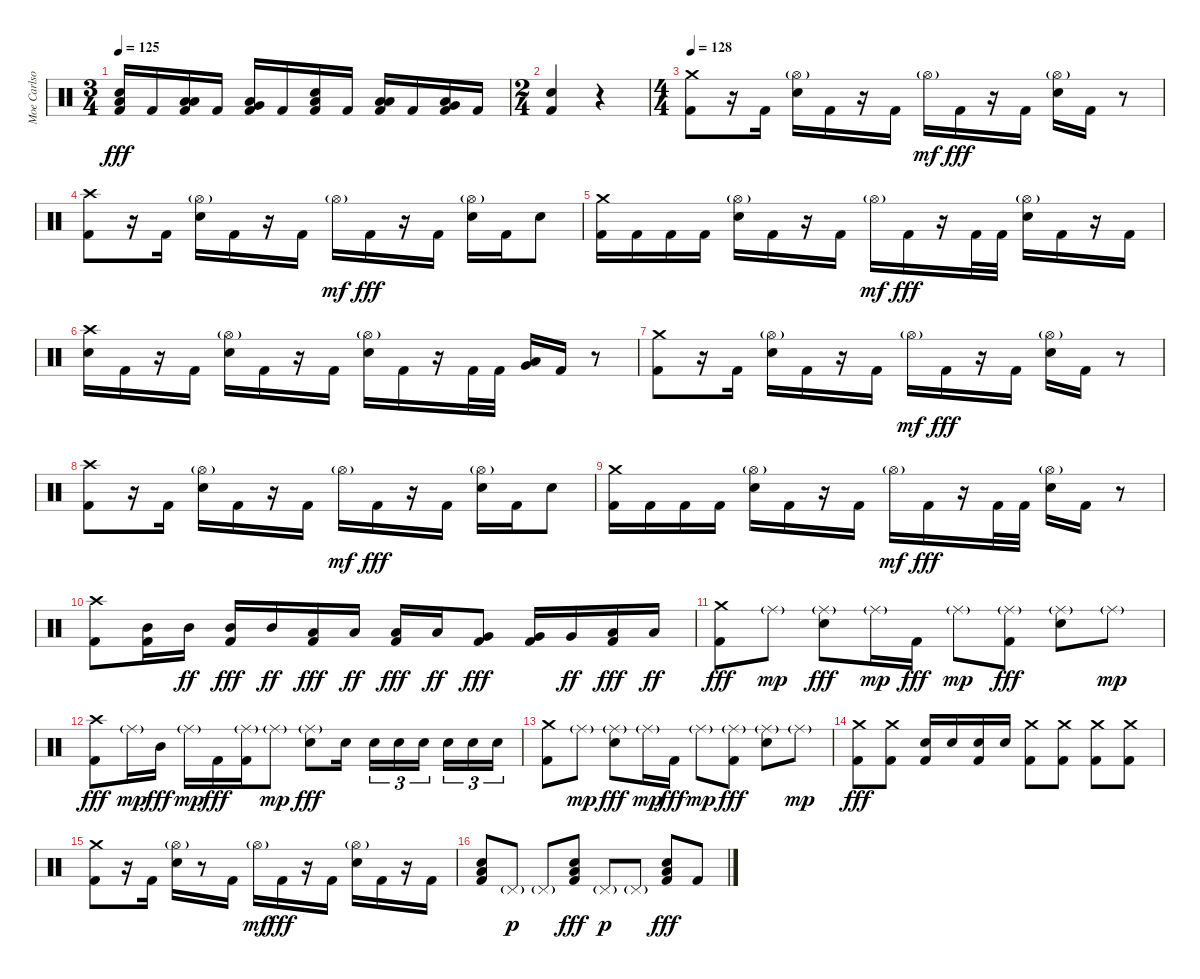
\track ("Moe Carlson" "Moe Carlso") {instrument percussion}
\staff {score}
\articulation defaults
\ts (3 4)
\tempo 125
\clef neutral
\ks c
("Electric Snare (hit)" "Low Floor Tom (hit)" "Kick (hit) 2").16{dy fff} "Kick (hit) 2".16 ("Low Tom (hit)" "Low Floor Tom (hit)" "Kick (hit) 2").16 "Kick (hit) 2".16 ("Very Low Tom (hit)" "Low Floor Tom (hit)" "Kick (hit) 2").16 "Kick (hit) 2".16 ("Electric Snare (hit)" "Low Floor Tom (hit)" "Kick (hit) 2").16 "Kick (hit) 2".16 ("Low Tom (hit)" "Low Floor Tom (hit)" "Kick (hit) 2").16 "Kick (hit) 2".16 ("Very Low Tom (hit)" "Low Floor Tom (hit)" "Kick (hit) 2").16 "Kick (hit) 2".16 |
\ts (2 4)
("Electric Snare (hit)" "Kick (hit) 2").4 r.4 |
\ts (4 4)
\tempo 128
("Crash medium (hit)" "Kick (hit) 2").8 r.16 "Kick (hit) 2".16 ("Hi-Hat (open)"{g} "Electric Snare (hit)").16 "Kick (hit) 2".16 r.16 "Kick (hit) 2".16 "Hi-Hat (open)"{g}.16{dy mf} "Kick (hit) 2".16{dy fff} r.16 "Kick (hit) 2".16 ("Hi-Hat (open)"{g} "Electric Snare (hit)").16 "Kick (hit) 2".16 r.8 |
("Crash high (hit)" "Kick (hit) 2").8 r.16 "Kick (hit) 2".16 ("Hi-Hat (open)"{g} "Electric Snare (hit)").16 "Kick (hit) 2".16 r.16 "Kick (hit) 2".16 "Hi-Hat (open)"{g}.16{dy mf} "Kick (hit) 2".16{dy fff} r.16 "Kick (hit) 2".16 ("Hi-Hat (open)"{g} "Electric Snare (hit)").16 "Kick (hit) 2".16 "Electric Snare (hit)".8 |
("Crash medium (hit)" "Kick (hit) 2").16 "Kick (hit) 2".16 "Kick (hit) 2".16 "Kick (hit) 2".16 ("Hi-Hat (open)"{g} "Electric Snare (hit)").16 "Kick (hit) 2".16 r.16 "Kick (hit) 2".16 "Hi-Hat (open)"{g}.16{dy mf} "Kick (hit) 2".16{dy fff} r.16 "Kick (hit) 2".32 "Kick (hit) 2".32 ("Hi-Hat (open)"{g} "Electric Snare (hit)").16 "Kick (hit) 2".16 r.16 "Kick (hit) 2".16 |
("Crash high (hit)" "Electric Snare (hit)").16 "Kick (hit) 2".16 r.16 "Kick (hit) 2".16 ("Hi-Hat (open)"{g} "Electric Snare (hit)").16 "Kick (hit) 2".16 r.16 "Kick (hit) 2".16 ("Hi-Hat (open)"{g} "Electric Snare (hit)").16 "Kick (hit) 2".16 r.16 "Kick (hit) 2".32 "Kick (hit) 2".32 ("Very Low Tom (hit)" "Low Floor Tom (hit)").16 "Kick (hit) 2".16 r.8 |
("Crash medium (hit)" "Kick (hit) 2").8 r.16 "Kick (hit) 2".16 ("Hi-Hat (open)"{g} "Electric Snare (hit)").16 "Kick (hit) 2".16 r.16 "Kick (hit) 2".16 "Hi-Hat (open)"{g}.16{dy mf} "Kick (hit) 2".16{dy fff} r.16 "Kick (hit) 2".16 ("Hi-Hat (open)"{g} "Electric Snare (hit)").16 "Kick (hit) 2".16 r.8 |
("Crash high (hit)" "Kick (hit) 2").8 r.16 "Kick (hit) 2".16 ("Hi-Hat (open)"{g} "Electric Snare (hit)").16 "Kick (hit) 2".16 r.16 "Kick (hit) 2".16 "Hi-Hat (open)"{g}.16{dy mf} "Kick (hit) 2".16{dy fff} r.16 "Kick (hit) 2".16 ("Hi-Hat (open)"{g} "Electric Snare (hit)").16 "Kick (hit) 2".16 "Electric Snare (hit)".8 |
("Crash medium (hit)" "Kick (hit) 2").16 "Kick (hit) 2".16 "Kick (hit) 2".16 "Kick (hit) 2".16 ("Hi-Hat (open)"{g} "Electric Snare (hit)").16 "Kick (hit) 2".16 r.16 "Kick (hit) 2".16 "Hi-Hat (open)"{g}.16{dy mf} "Kick (hit) 2".16{dy fff} r.16 "Kick (hit) 2".32 "Kick (hit) 2".32 ("Hi-Hat (open)"{g} "Electric Snare (hit)").16 "Kick (hit) 2".16 r.8 |
("Crash high (hit)" "Kick (hit) 2").8 ("Mid Tom (hit)" "Kick (hit) 2").16 "Mid Tom (hit)".16{dy ff} ("Mid Tom (hit)" "Kick (hit) 2").16{dy fff} "Mid Tom (hit)".16{dy ff} ("Low Tom (hit)" "Kick (hit) 2").16{dy fff} "Low Tom (hit)".16{dy ff} ("Low Tom (hit)" "Kick (hit) 2").16{dy fff} "Low Tom (hit)".16{dy ff} ("Very Low Tom (hit)" "Kick (hit) 2").8{dy fff} ("Very Low Tom (hit)" "Kick (hit) 2").16 "Very Low Tom (hit)".16{dy ff} ("Low Floor Tom (hit)" "Kick (hit) 2").16{dy fff} "Low Floor Tom (hit)".16{dy ff} |
("Crash medium (hit)" "Kick (hit) 2").8{dy fff} "Ride (middle)"{g}.8{dy mp} ("Ride (middle)"{g} "Electric Snare (hit)").8{dy fff} "Ride (middle)"{g}.16{dy mp} "Kick (hit) 2".16{dy fff} "Ride (middle)"{g}.8{dy mp} ("Ride (middle)"{g} "Kick (hit) 2").8{dy fff} ("Ride (middle)"{g} "Electric Snare (hit)").8 "Ride (middle)"{g}.8{dy mp} |
("Crash high (hit)" "Kick (hit) 2").8{dy fff} "Ride (middle)"{g}.16{dy mp} "Mid Tom (hit)".16{dy fff} "Ride (middle)"{g}.16{dy mp} "Kick (hit) 2".16{dy fff} ("Ride (middle)"{g} "Kick (hit) 2").16 "Ride (middle)"{g}.8{dy mp} ("Ride (middle)"{g} "Electric Snare (hit)").8{dy fff} "Electric Snare (hit)".16 "Electric Snare (hit)".16{tu (3 2)} "Electric Snare (hit)".16{tu (3 2)} "Electric Snare (hit)".16{tu (3 2)} "Electric Snare (hit)".16{tu (3 2)} "Electric Snare (hit)".16{tu (3 2)} "Electric Snare (hit)".16{tu (3 2)} |
("Crash medium (hit)" "Kick (hit) 2").8 "Ride (middle)"{g}.8{dy mp} ("Ride (middle)"{g} "Electric Snare (hit)").8{dy fff} "Ride (middle)"{g}.16{dy mp} "Kick (hit) 2".16{dy fff} "Ride (middle)"{g}.8{dy mp} ("Ride (middle)"{g} "Kick (hit) 2").8{dy fff} ("Ride (middle)"{g} "Electric Snare (hit)").8 "Ride (middle)"{g}.8{dy mp} |
("Crash medium (hit)" "Kick (hit) 2").8{dy fff} ("Crash medium (hit)" "Kick (hit) 2").8 ("Electric Snare (hit)" "Kick (hit) 2").16 "Electric Snare (hit)".16 ("Electric Snare (hit)" "Kick (hit) 2").16 "Electric Snare (hit)".16 ("Crash medium (hit)" "Kick (hit) 2").8 ("Crash medium (hit)" "Kick (hit) 2").8 ("Crash medium (hit)" "Kick (hit) 2").8 ("Crash medium (hit)" "Kick (hit) 2").8 |
("Crash medium (hit)" "Kick (hit) 2").8 r.16 "Kick (hit) 2".16 ("Hi-Hat (open)"{g} "Electric Snare (hit)").16 r.8 "Kick (hit) 2".16 "Hi-Hat (open)"{g}.16{dy mf} "Kick (hit) 2".16{dy fff} r.16 "Kick (hit) 2".16 ("Hi-Hat (open)"{g} "Electric Snare (hit)").16 "Kick (hit) 2".16 r.16 "Kick (hit) 2".16 |
("Electric Snare (hit)" "Low Floor Tom (hit)" "Kick (hit) 2").8 "Pedal Hi-Hat (hit)"{g}.8{dy p} "Pedal Hi-Hat (hit)"{g}.8 ("Electric Snare (hit)" "Low Floor Tom (hit)" "Kick (hit) 2").8{dy fff} "Pedal Hi-Hat (hit)"{g}.8{dy p} "Pedal Hi-Hat (hit)"{g}.8 ("Electric Snare (hit)" "Low Floor Tom (hit)" "Kick (hit) 2").8{dy fff} "Kick (hit) 2".8
